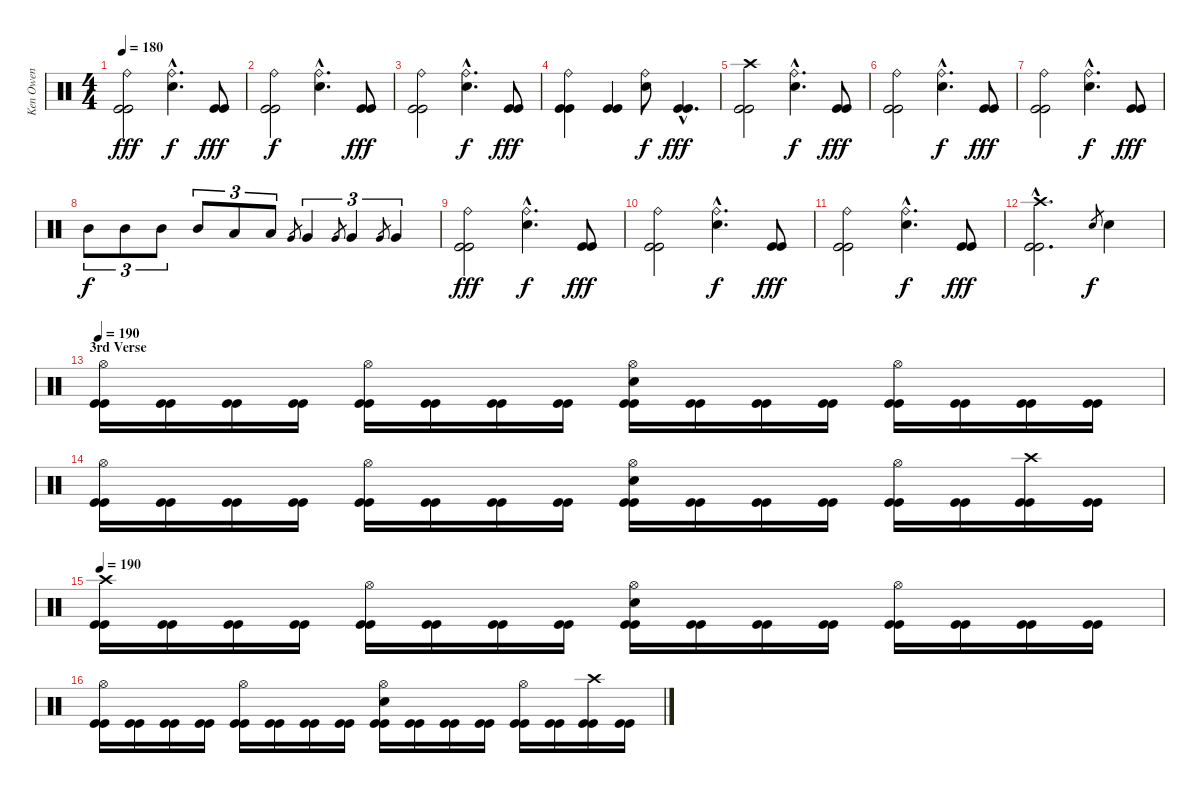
\track ("Ken Owen" "Ken Owen") {instrument percussion}
\staff {score}
\articulation defaults
\ts (4 4)
\tempo 180
\clef neutral
\ks c
("Ride (bell)" "Kick (hit)" "Kick (hit)").2{dy fff} ("Ride (bell)"{hac} "Snare (hit) 2"{hac}).4{d dy f} ("Kick (hit)" "Kick (hit)").8{dy fff} |
("Ride (bell)" "Kick (hit)" "Kick (hit)").2{dy f} ("Ride (bell)"{hac} "Snare (hit) 2"{hac}).4{d} ("Kick (hit)" "Kick (hit)").8{dy fff} |
("Ride (bell)" "Kick (hit)" "Kick (hit)").2 ("Ride (bell)"{hac} "Snare (hit) 2"{hac}).4{d dy f} ("Kick (hit)" "Kick (hit)").8{dy fff} |
("Ride (bell)" "Kick (hit)" "Kick (hit)").4 ("Kick (hit)" "Kick (hit)").4 ("Ride (bell)" "Snare (hit) 2").8{dy f} ("Kick (hit)"{hac} "Kick (hit)"{hac}).4{d dy fff} |
("Crash high (hit)" "Kick (hit)" "Kick (hit)").2 ("Ride (bell)"{hac} "Snare (hit) 2"{hac}).4{d dy f} ("Kick (hit)" "Kick (hit)").8{dy fff} |
("Ride (bell)" "Kick (hit)" "Kick (hit)").2 ("Ride (bell)"{hac} "Snare (hit) 2"{hac}).4{d dy f} ("Kick (hit)" "Kick (hit)").8{dy fff} |
("Ride (bell)" "Kick (hit)" "Kick (hit)").2 ("Ride (bell)"{hac} "Snare (hit) 2"{hac}).4{d dy f} ("Kick (hit)" "Kick (hit)").8{dy fff} |
"Mid Tom (hit)".8{tu (3 2) dy f} "Mid Tom (hit)".8{tu (3 2)} "Mid Tom (hit)".8{tu (3 2)} "Mid Tom (hit)".8{tu (3 2)} "Low Tom (hit)".8{tu (3 2)} "Low Tom (hit)".8{tu (3 2)} "Very Low Tom (hit)".8{gr} "Very Low Tom (hit)".4{tu (3 2)} "Very Low Tom (hit)".8{gr} "Very Low Tom (hit)".4{tu (3 2)} "Very Low Tom (hit)".8{gr} "Very Low Tom (hit)".4{tu (3 2)} |
("Ride (bell)" "Kick (hit)" "Kick (hit)").2{dy fff} ("Ride (bell)"{hac} "Snare (hit) 2"{hac}).4{d dy f} ("Kick (hit)" "Kick (hit)").8{dy fff} |
("Ride (bell)" "Kick (hit)" "Kick (hit)").2 ("Ride (bell)"{hac} "Snare (hit) 2"{hac}).4{d dy f} ("Kick (hit)" "Kick (hit)").8{dy fff} |
("Ride (bell)" "Kick (hit)" "Kick (hit)").2 ("Ride (bell)"{hac} "Snare (hit) 2"{hac}).4{d dy f} ("Kick (hit)" "Kick (hit)").8{dy fff} |
("Crash high (hit)"{hac} "Kick (hit)"{hac} "Kick (hit)"{hac}).2{d} "Snare (hit) 2".8{gr dy f} "Snare (hit) 2".4 |
\section ("" "3rd Verse")
\tempo 190
("Hi-Hat (open)" "Kick (hit)" "Kick (hit)").16 ("Kick (hit)" "Kick (hit)").16 ("Kick (hit)" "Kick (hit)").16 ("Kick (hit)" "Kick (hit)").16 ("Hi-Hat (open)" "Kick (hit)" "Kick (hit)").16 ("Kick (hit)" "Kick (hit)").16 ("Kick (hit)" "Kick (hit)").16 ("Kick (hit)" "Kick (hit)").16 ("Hi-Hat (open)" "Snare (hit) 2" "Kick (hit)" "Kick (hit)").16 ("Kick (hit)" "Kick (hit)").16 ("Kick (hit)" "Kick (hit)").16 ("Kick (hit)" "Kick (hit)").16 ("Hi-Hat (open)" "Kick (hit)" "Kick (hit)").16 ("Kick (hit)" "Kick (hit)").16 ("Kick (hit)" "Kick (hit)").16 ("Kick (hit)" "Kick (hit)").16 |
("Hi-Hat (open)" "Kick (hit)" "Kick (hit)").16 ("Kick (hit)" "Kick (hit)").16 ("Kick (hit)" "Kick (hit)").16 ("Kick (hit)" "Kick (hit)").16 ("Hi-Hat (open)" "Kick (hit)" "Kick (hit)").16 ("Kick (hit)" "Kick (hit)").16 ("Kick (hit)" "Kick (hit)").16 ("Kick (hit)" "Kick (hit)").16 ("Hi-Hat (open)" "Snare (hit) 2" "Kick (hit)" "Kick (hit)").16 ("Kick (hit)" "Kick (hit)").16 ("Kick (hit)" "Kick (hit)").16 ("Kick (hit)" "Kick (hit)").16 ("Hi-Hat (open)" "Kick (hit)" "Kick (hit)").16 ("Kick (hit)" "Kick (hit)").16 ("Crash high (hit)" "Kick (hit)" "Kick (hit)").16 ("Kick (hit)" "Kick (hit)").16 |
\tempo 190
("Crash high (hit)" "Kick (hit)" "Kick (hit)").16 ("Kick (hit)" "Kick (hit)").16 ("Kick (hit)" "Kick (hit)").16 ("Kick (hit)" "Kick (hit)").16 ("Hi-Hat (open)" "Kick (hit)" "Kick (hit)").16 ("Kick (hit)" "Kick (hit)").16 ("Kick (hit)" "Kick (hit)").16 ("Kick (hit)" "Kick (hit)").16 ("Hi-Hat (open)" "Snare (hit) 2" "Kick (hit)" "Kick (hit)").16 ("Kick (hit)" "Kick (hit)").16 ("Kick (hit)" "Kick (hit)").16 ("Kick (hit)" "Kick (hit)").16 ("Hi-Hat (open)" "Kick (hit)" "Kick (hit)").16 ("Kick (hit)" "Kick (hit)").16 ("Kick (hit)" "Kick (hit)").16 ("Kick (hit)" "Kick (hit)").16 |
("Hi-Hat (open)" "Kick (hit)" "Kick (hit)").16 ("Kick (hit)" "Kick (hit)").16 ("Kick (hit)" "Kick (hit)").16 ("Kick (hit)" "Kick (hit)").16 ("Hi-Hat (open)" "Kick (hit)" "Kick (hit)").16 ("Kick (hit)" "Kick (hit)").16 ("Kick (hit)" "Kick (hit)").16 ("Kick (hit)" "Kick (hit)").16 ("Hi-Hat (open)" "Snare (hit) 2" "Kick (hit)" "Kick (hit)").16 ("Kick (hit)" "Kick (hit)").16 ("Kick (hit)" "Kick (hit)").16 ("Kick (hit)" "Kick (hit)").16 ("Hi-Hat (open)" "Kick (hit)" "Kick (hit)").16 ("Kick (hit)" "Kick (hit)").16 ("Crash high (hit)" "Kick (hit)" "Kick (hit)").16 ("Kick (hit)" "Kick (hit)").16
